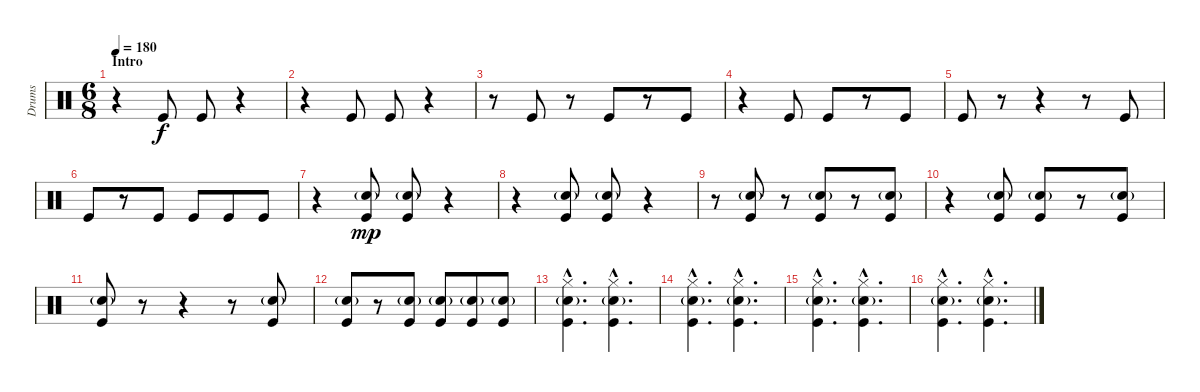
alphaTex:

\track ("Drums" "Drums") {instrument percussion}
\staff {score}
\articulation defaults
\ts (6 8)
\section ("" "Intro")
\tempo 180
\clef neutral
\ks c
r.4{dy f} "Kick (hit)".8 "Kick (hit)".8 r.4 |
r.4 "Kick (hit)".8 "Kick (hit)".8 r.4 |
r.8 "Kick (hit)".8 r.8 "Kick (hit)".8 r.8 "Kick (hit)".8 |
r.4 "Kick (hit)".8 "Kick (hit)".8 r.8 "Kick (hit)".8 |
"Kick (hit)".8 r.8 r.4 r.8 "Kick (hit)".8 |
"Kick (hit)".8 r.8 "Kick (hit)".8 "Kick (hit)".8 "Kick (hit)".8 "Kick (hit)".8 |
r.4 ("Electric Snare (hit)"{g} "Kick (hit)").8{dy mp} ("Electric Snare (hit)"{g} "Kick (hit)").8 r.4 |
r.4 ("Electric Snare (hit)"{g} "Kick (hit)").8 ("Electric Snare (hit)"{g} "Kick (hit)").8 r.4 |
r.8 ("Electric Snare (hit)"{g} "Kick (hit)").8 r.8 ("Electric Snare (hit)"{g} "Kick (hit)").8 r.8 ("Electric Snare (hit)"{g} "Kick (hit)").8 |
r.4 ("Electric Snare (hit)"{g} "Kick (hit)").8 ("Electric Snare (hit)"{g} "Kick (hit)").8 r.8 ("Electric Snare (hit)"{g} "Kick (hit)").8 |
("Electric Snare (hit)"{g} "Kick (hit)").8 r.8 r.4 r.8 ("Electric Snare (hit)"{g} "Kick (hit)").8 |
("Electric Snare (hit)"{g} "Kick (hit)").8 r.8 ("Electric Snare (hit)"{g} "Kick (hit)").8 ("Electric Snare (hit)"{g} "Kick (hit)").8 ("Electric Snare (hit)"{g} "Kick (hit)").8 ("Electric Snare (hit)"{g} "Kick (hit)").8 |
("Hi-Hat (closed)"{hac} "Electric Snare (hit)"{g hac} "Kick (hit)"{hac}).4{d} ("Hi-Hat (closed)"{hac} "Electric Snare (hit)"{g hac} "Kick (hit)"{hac}).4{d} |
("Hi-Hat (closed)"{hac} "Electric Snare (hit)"{g hac} "Kick (hit)"{hac}).4{d} ("Hi-Hat (closed)"{hac} "Electric Snare (hit)"{g hac} "Kick (hit)"{hac}).4{d} |
("Hi-Hat (closed)"{hac} "Electric Snare (hit)"{g hac} "Kick (hit)"{hac}).4{d} ("Hi-Hat (closed)"{hac} "Electric Snare (hit)"{g hac} "Kick (hit)"{hac}).4{d} |
("Hi-Hat (closed)"{hac} "Electric Snare (hit)"{g hac} "Kick (hit)"{hac}).4{d} ("Hi-Hat (closed)"{hac} "Electric Snare (hit)"{g hac} "Kick (hit)"{hac}).4{d}
